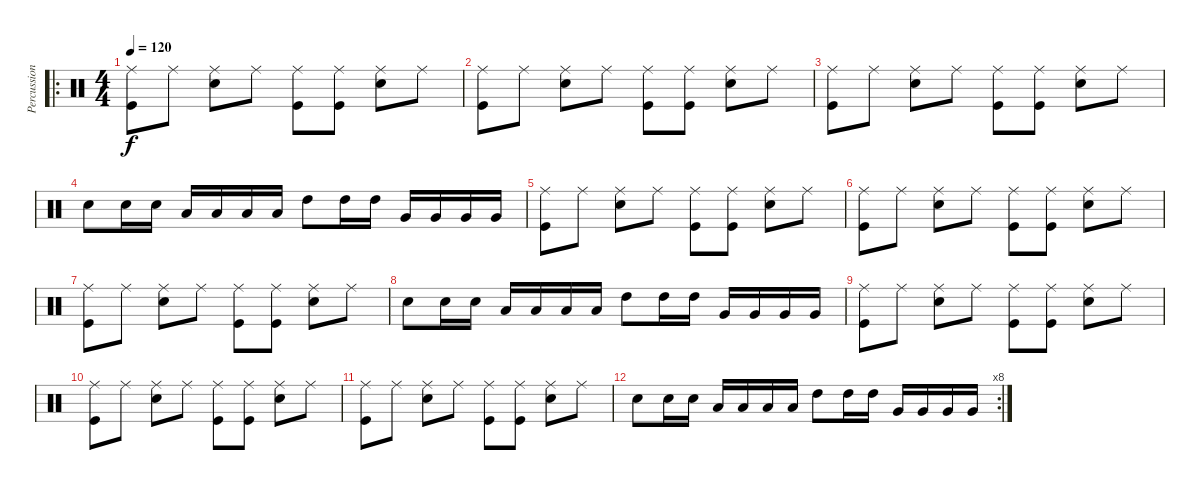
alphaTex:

\track ("Percussion" "Percussion") {instrument percussion}
\staff {score}
\articulation defaults
\ro
\ts (4 4)
\tempo 120
\clef neutral
\ks c
("Kick (hit)" "Ride (middle)").8{dy f} "Ride (middle)".8 ("Snare (hit) 2" "Ride (middle)").8 "Ride (middle)".8 ("Kick (hit)" "Ride (middle)").8 ("Kick (hit)" "Ride (middle)").8 ("Snare (hit) 2" "Ride (middle)").8 "Ride (middle)".8 |
("Kick (hit)" "Ride (middle)").8 "Ride (middle)".8 ("Snare (hit) 2" "Ride (middle)").8 "Ride (middle)".8 ("Kick (hit)" "Ride (middle)").8 ("Kick (hit)" "Ride (middle)").8 ("Snare (hit) 2" "Ride (middle)").8 "Ride (middle)".8 |
("Kick (hit)" "Ride (middle)").8 "Ride (middle)".8 ("Snare (hit) 2" "Ride (middle)").8 "Ride (middle)".8 ("Kick (hit)" "Ride (middle)").8 ("Kick (hit)" "Ride (middle)").8 ("Snare (hit) 2" "Ride (middle)").8 "Ride (middle)".8 |
"Snare (hit) 2".8 "Snare (hit) 2".16 "Snare (hit) 2".16 "Low Tom (hit)".16 "Low Tom (hit)".16 "Low Tom (hit)".16 "Low Tom (hit)".16 "High Tom (hit)".8 "High Tom (hit)".16 "High Tom (hit)".16 "Very Low Tom (hit)".16 "Very Low Tom (hit)".16 "Very Low Tom (hit)".16 "Very Low Tom (hit)".16 |
("Kick (hit)" "Ride (middle)").8 "Ride (middle)".8 ("Snare (hit) 2" "Ride (middle)").8 "Ride (middle)".8 ("Kick (hit)" "Ride (middle)").8 ("Kick (hit)" "Ride (middle)").8 ("Snare (hit) 2" "Ride (middle)").8 "Ride (middle)".8 |
("Kick (hit)" "Ride (middle)").8 "Ride (middle)".8 ("Snare (hit) 2" "Ride (middle)").8 "Ride (middle)".8 ("Kick (hit)" "Ride (middle)").8 ("Kick (hit)" "Ride (middle)").8 ("Snare (hit) 2" "Ride (middle)").8 "Ride (middle)".8 |
("Kick (hit)" "Ride (middle)").8 "Ride (middle)".8 ("Snare (hit) 2" "Ride (middle)").8 "Ride (middle)".8 ("Kick (hit)" "Ride (middle)").8 ("Kick (hit)" "Ride (middle)").8 ("Snare (hit) 2" "Ride (middle)").8 "Ride (middle)".8 |
"Snare (hit) 2".8 "Snare (hit) 2".16 "Snare (hit) 2".16 "Low Tom (hit)".16 "Low Tom (hit)".16 "Low Tom (hit)".16 "Low Tom (hit)".16 "High Tom (hit)".8 "High Tom (hit)".16 "High Tom (hit)".16 "Very Low Tom (hit)".16 "Very Low Tom (hit)".16 "Very Low Tom (hit)".16 "Very Low Tom (hit)".16 |
("Kick (hit)" "Ride (middle)").8 "Ride (middle)".8 ("Snare (hit) 2" "Ride (middle)").8 "Ride (middle)".8 ("Kick (hit)" "Ride (middle)").8 ("Kick (hit)" "Ride (middle)").8 ("Snare (hit) 2" "Ride (middle)").8 "Ride (middle)".8 |
("Kick (hit)" "Ride (middle)").8 "Ride (middle)".8 ("Snare (hit) 2" "Ride (middle)").8 "Ride (middle)".8 ("Kick (hit)" "Ride (middle)").8 ("Kick (hit)" "Ride (middle)").8 ("Snare (hit) 2" "Ride (middle)").8 "Ride (middle)".8 |
("Kick (hit)" "Ride (middle)").8 "Ride (middle)".8 ("Snare (hit) 2" "Ride (middle)").8 "Ride (middle)".8 ("Kick (hit)" "Ride (middle)").8 ("Kick (hit)" "Ride (middle)").8 ("Snare (hit) 2" "Ride (middle)").8 "Ride (middle)".8 |
\rc 8 "Snare (hit) 2".8 "Snare (hit) 2".16 "Snare (hit) 2".16 "Low Tom (hit)".16 "Low Tom (hit)".16 "Low Tom (hit)".16 "Low Tom (hit)".16 "High Tom (hit)".8 "High Tom (hit)".16 "High Tom (hit)".16 "Very Low Tom (hit)".16 "Very Low Tom (hit)".16 "Very Low Tom (hit)".16 "Very Low Tom (hit)".16
